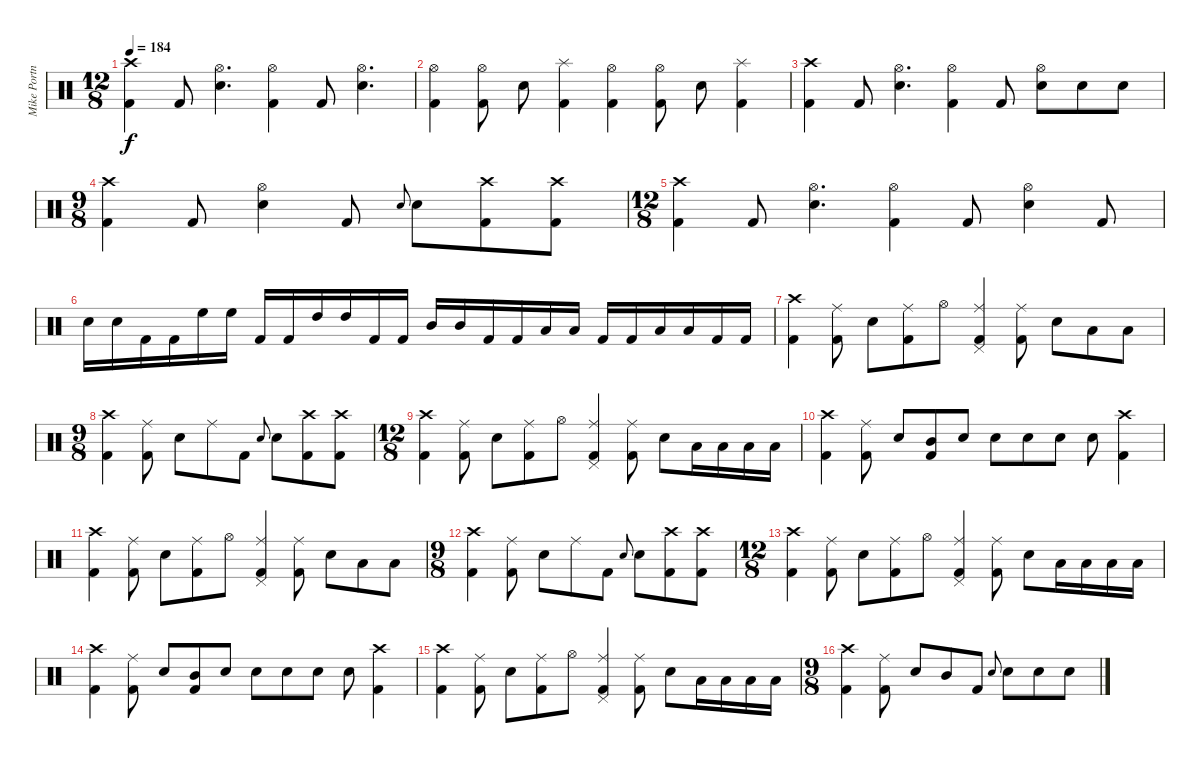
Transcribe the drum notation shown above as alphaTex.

\track ("Mike Portnoy - Drum" "Mike Portn") {instrument percussion}
\staff {score}
\articulation defaults
\ts (12 8)
\tempo 184
\clef neutral
\ks c
("Crash high (hit)" "Kick (hit) 2").4{dy f} "Kick (hit) 2".8 ("Hi-Hat (open)" "Electric Snare (hit)").4{d} ("Hi-Hat (open)" "Kick (hit) 2").4 "Kick (hit) 2".8 ("Hi-Hat (open)" "Electric Snare (hit)").4{d} |
("Hi-Hat (open)" "Kick (hit) 2").4 ("Hi-Hat (open)" "Kick (hit) 2").8 "Electric Snare (hit)".8 ("Splash (hit)" "Kick (hit) 2").4 ("Hi-Hat (open)" "Kick (hit) 2").4 ("Hi-Hat (open)" "Kick (hit) 2").8 "Electric Snare (hit)".8 ("Splash (hit)" "Kick (hit) 2").4 |
("Crash high (hit)" "Kick (hit) 2").4{volume 14} "Kick (hit) 2".8 ("Hi-Hat (open)" "Electric Snare (hit)").4{d} ("Hi-Hat (open)" "Kick (hit) 2").4 "Kick (hit) 2".8 ("Hi-Hat (open)" "Electric Snare (hit)").8 "Electric Snare (hit)".8 "Electric Snare (hit)".8 |
\ts (9 8)
("Crash high (hit)" "Kick (hit) 2").4 "Kick (hit) 2".8 ("Hi-Hat (open)" "Electric Snare (hit)").4 "Kick (hit) 2".8 "Electric Snare (hit)".8{gr onbeat} "Electric Snare (hit)".8 ("Crash high (hit)" "Kick (hit) 2").8 ("Crash high (hit)" "Kick (hit) 2").8 |
\ts (12 8)
("Crash high (hit)" "Kick (hit) 2").4 "Kick (hit) 2".8 ("Hi-Hat (open)" "Electric Snare (hit)").4{d} ("Hi-Hat (open)" "Kick (hit) 2").4 "Kick (hit) 2".8 ("Hi-Hat (open)" "Electric Snare (hit)").4 "Kick (hit) 2".8 |
"Electric Snare (hit)".16 "Electric Snare (hit)".16 "Kick (hit) 2".16 "Kick (hit) 2".16 "High Floor Tom (hit)".16 "High Floor Tom (hit)".16 "Kick (hit) 2".16 "Kick (hit) 2".16 "High Tom (hit)".16 "High Tom (hit)".16 "Kick (hit) 2".16 "Kick (hit) 2".16 "Mid Tom (hit)".16 "Mid Tom (hit)".16 "Kick (hit) 2".16 "Kick (hit) 2".16 "Low Tom (hit)".16 "Low Tom (hit)".16 "Kick (hit) 2".16 "Kick (hit) 2".16 "Low Tom (hit)".16 "Low Tom (hit)".16 "Kick (hit) 2".16 "Kick (hit) 2".16 |
("Crash high (hit)" "Kick (hit) 2").4 ("Ride (middle)" "Kick (hit) 2").8 "Electric Snare (hit)".8 ("Ride (middle)" "Kick (hit) 2").8 "Hi-Hat (open)".8 ("Ride (middle)" "Pedal Hi-Hat (hit)" "Kick (hit) 2").4 ("Ride (middle)" "Kick (hit) 2").8 "Electric Snare (hit)".8 "Low Tom (hit)".8 "Low Tom (hit)".8 |
\ts (9 8)
("Crash high (hit)" "Kick (hit) 2").4 ("Ride (middle)" "Kick (hit) 2").8 "Electric Snare (hit)".8 "Ride (middle)".8 "Kick (hit) 2".8 "Electric Snare (hit)".8{gr onbeat} "Electric Snare (hit)".8 ("Crash high (hit)" "Kick (hit) 2").8 ("Crash high (hit)" "Kick (hit) 2").8 |
\ts (12 8)
("Crash high (hit)" "Kick (hit) 2").4 ("Ride (middle)" "Kick (hit) 2").8 "Electric Snare (hit)".8 ("Ride (middle)" "Kick (hit) 2").8 "Hi-Hat (open)".8 ("Ride (middle)" "Pedal Hi-Hat (hit)" "Kick (hit) 2").4 ("Ride (middle)" "Kick (hit) 2").8 "Electric Snare (hit)".8 "Low Tom (hit)".16 "Low Tom (hit)".16 "Low Tom (hit)".16 "Low Tom (hit)".16 |
("Crash high (hit)" "Kick (hit) 2").4 ("Ride (middle)" "Kick (hit) 2").8 "Electric Snare (hit)".8 ("Mid Tom (hit)" "Kick (hit) 2").8 "Electric Snare (hit)".8 "Electric Snare (hit)".8 "Electric Snare (hit)".8 "Electric Snare (hit)".8 "Electric Snare (hit)".8 ("Crash high (hit)" "Kick (hit) 2").4 |
("Crash high (hit)" "Kick (hit) 2").4 ("Ride (middle)" "Kick (hit) 2").8 "Electric Snare (hit)".8 ("Ride (middle)" "Kick (hit) 2").8 "Hi-Hat (open)".8 ("Ride (middle)" "Pedal Hi-Hat (hit)" "Kick (hit) 2").4 ("Ride (middle)" "Kick (hit) 2").8 "Electric Snare (hit)".8 "Low Tom (hit)".8 "Low Tom (hit)".8 |
\ts (9 8)
("Crash high (hit)" "Kick (hit) 2").4 ("Ride (middle)" "Kick (hit) 2").8 "Electric Snare (hit)".8 "Ride (middle)".8 "Kick (hit) 2".8 "Electric Snare (hit)".8{gr onbeat} "Electric Snare (hit)".8 ("Crash high (hit)" "Kick (hit) 2").8 ("Crash high (hit)" "Kick (hit) 2").8 |
\ts (12 8)
("Crash high (hit)" "Kick (hit) 2").4 ("Ride (middle)" "Kick (hit) 2").8 "Electric Snare (hit)".8 ("Ride (middle)" "Kick (hit) 2").8 "Hi-Hat (open)".8 ("Ride (middle)" "Pedal Hi-Hat (hit)" "Kick (hit) 2").4 ("Ride (middle)" "Kick (hit) 2").8 "Electric Snare (hit)".8 "Low Tom (hit)".16 "Low Tom (hit)".16 "Low Tom (hit)".16 "Low Tom (hit)".16 |
("Crash high (hit)" "Kick (hit) 2").4 ("Ride (middle)" "Kick (hit) 2").8 "Electric Snare (hit)".8 ("Mid Tom (hit)" "Kick (hit) 2").8 "Electric Snare (hit)".8 "Electric Snare (hit)".8 "Electric Snare (hit)".8 "Electric Snare (hit)".8 "Electric Snare (hit)".8 ("Crash high (hit)" "Kick (hit) 2").4 |
("Crash high (hit)" "Kick (hit) 2").4 ("Ride (middle)" "Kick (hit) 2").8 "Electric Snare (hit)".8 ("Ride (middle)" "Kick (hit) 2").8 "Hi-Hat (open)".8 ("Ride (middle)" "Pedal Hi-Hat (hit)" "Kick (hit) 2").4 ("Ride (middle)" "Kick (hit) 2").8 "Electric Snare (hit)".8 "Low Tom (hit)".16 "Low Tom (hit)".16 "Low Tom (hit)".16 "Low Tom (hit)".16 |
\ts (9 8)
("Crash high (hit)" "Kick (hit) 2").4 ("Ride (middle)" "Kick (hit) 2").8 "Electric Snare (hit)".8 "Mid Tom (hit)".8 "Kick (hit) 2".8 "Electric Snare (hit)".8{gr onbeat} "Electric Snare (hit)".8 "Electric Snare (hit)".8 "Electric Snare (hit)".8
